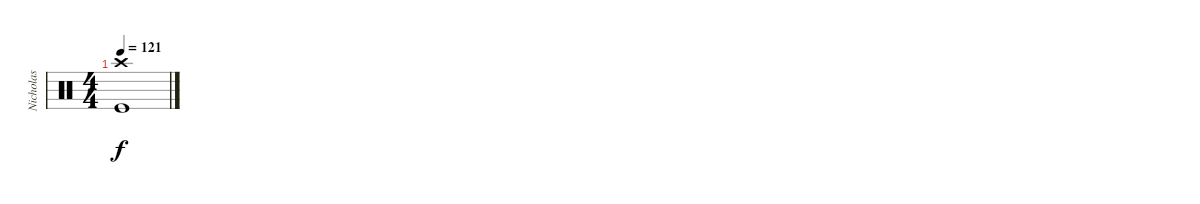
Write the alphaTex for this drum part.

\track ("Nicholas" "Nicholas") {instrument percussion}
\staff {score}
\articulation defaults
\ts (4 4)
\tempo 121
\clef neutral
\ks c
("Crash high (hit)" "Kick (hit)").1{dy f}
